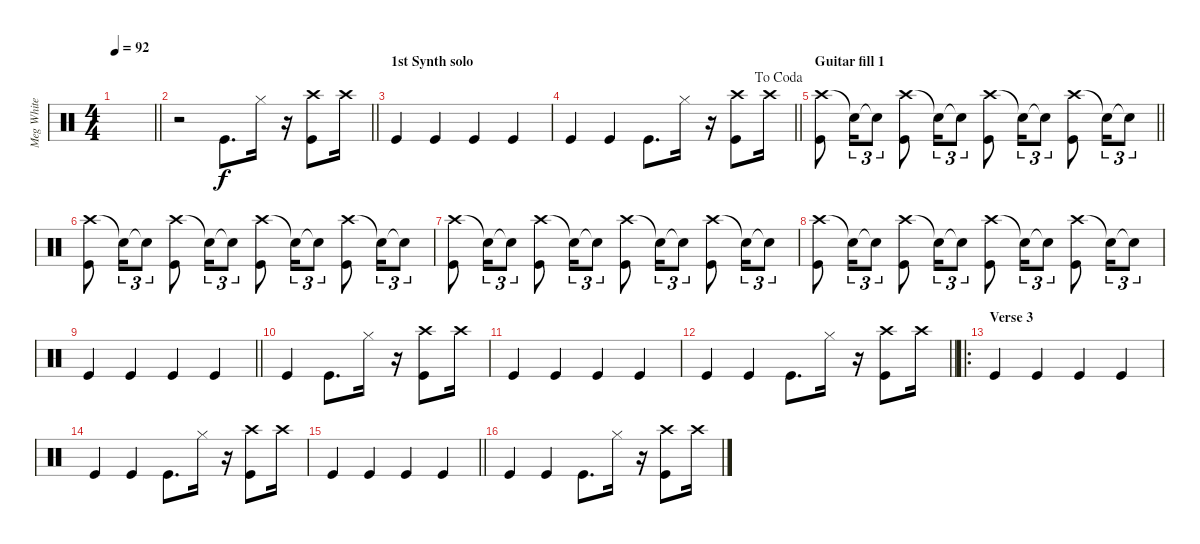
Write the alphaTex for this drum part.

\track ("Meg White" "Meg White") {instrument percussion}
\staff {score}
\articulation defaults
\ts (4 4)
\tempo 92
\clef neutral
\barLineRight lightlight
\ks c
|
\barLineRight lightlight
r.2 "Kick (hit)".8{d} "Hi-Hat (closed)".16 r.16 ("Kick (hit)" "Crash high (hit)").8 "Crash high (hit)".16 |
\section ("" "1st Synth solo")
"Kick (hit)".4 "Kick (hit)".4 "Kick (hit)".4 "Kick (hit)".4 |
\jump dacoda
\barLineRight lightlight "Kick (hit)".4 "Kick (hit)".4 "Kick (hit)".8{d} "Hi-Hat (closed)".16
r.16 ("Kick (hit)" "Crash high (hit)").8 "Crash high (hit)".16 |
\section ("" "Guitar fill 1")
\barLineRight lightlight
("Crash high (hit)" "Kick (hit)").8 "Snare (hit)"{t}.16{tu (3 2)} "Snare (hit)"{t}.8{tu (3 2)} ("Crash high (hit)" "Kick (hit)").8 "Snare (hit)"{t}.16{tu (3 2)} "Snare (hit)"{t}.8{tu (3 2)} ("Crash high (hit)" "Kick (hit)").8 "Snare (hit)"{t}.16{tu (3 2)} "Snare (hit)"{t}.8{tu (3 2)} ("Crash high (hit)" "Kick (hit)").8 "Snare (hit)"{t}.16{tu (3 2)} "Snare (hit)"{t}.8{tu (3 2)} |
("Crash high (hit)" "Kick (hit)").8 "Snare (hit)"{t}.16{tu (3 2)} "Snare (hit)"{t}.8{tu (3 2)} ("Crash high (hit)" "Kick (hit)").8 "Snare (hit)"{t}.16{tu (3 2)} "Snare (hit)"{t}.8{tu (3 2)} ("Crash high (hit)" "Kick (hit)").8 "Snare (hit)"{t}.16{tu (3 2)} "Snare (hit)"{t}.8{tu (3 2)} ("Crash high (hit)" "Kick (hit)").8 "Snare (hit)"{t}.16{tu (3 2)} "Snare (hit)"{t}.8{tu (3 2)} |
("Crash high (hit)" "Kick (hit)").8 "Snare (hit)"{t}.16{tu (3 2)} "Snare (hit)"{t}.8{tu (3 2)} ("Crash high (hit)" "Kick (hit)").8 "Snare (hit)"{t}.16{tu (3 2)} "Snare (hit)"{t}.8{tu (3 2)} ("Crash high (hit)" "Kick (hit)").8 "Snare (hit)"{t}.16{tu (3 2)} "Snare (hit)"{t}.8{tu (3 2)} ("Crash high (hit)" "Kick (hit)").8 "Snare (hit)"{t}.16{tu (3 2)} "Snare (hit)"{t}.8{tu (3 2)} |
("Crash high (hit)" "Kick (hit)").8 "Snare (hit)"{t}.16{tu (3 2)} "Snare (hit)"{t}.8{tu (3 2)} ("Crash high (hit)" "Kick (hit)").8 "Snare (hit)"{t}.16{tu (3 2)} "Snare (hit)"{t}.8{tu (3 2)} ("Crash high (hit)" "Kick (hit)").8 "Snare (hit)"{t}.16{tu (3 2)} "Snare (hit)"{t}.8{tu (3 2)} ("Crash high (hit)" "Kick (hit)").8 "Snare (hit)"{t}.16{tu (3 2)} "Snare (hit)"{t}.8{tu (3 2)} |
\barLineRight lightlight "Kick (hit)".4 "Kick (hit)".4 "Kick (hit)".4 "Kick (hit)".4
|
"Kick (hit)".4 "Kick (hit)".8{d} "Hi-Hat (closed)".16 r.16 ("Kick (hit)" "Crash high (hit)").8 "Crash high (hit)".16 |
"Kick (hit)".4 "Kick (hit)".4 "Kick (hit)".4 "Kick (hit)".4 |
\barLineRight lightlight "Kick (hit)".4 "Kick (hit)".4 "Kick (hit)".8{d} "Hi-Hat (closed)".16
r.16 ("Kick (hit)" "Crash high (hit)").8 "Crash high (hit)".16 |
\ro
\section ("" "Verse 3")
"Kick (hit)".4 "Kick (hit)".4 "Kick (hit)".4 "Kick (hit)".4 |
"Kick (hit)".4 "Kick (hit)".4 "Kick (hit)".8{d} "Hi-Hat (closed)".16 r.16 ("Kick (hit)" "Crash high (hit)").8 "Crash high (hit)".16 |
\barLineRight lightlight "Kick (hit)".4 "Kick (hit)".4 "Kick (hit)".4 "Kick (hit)".4
|
"Kick (hit)".4 "Kick (hit)".4 "Kick (hit)".8{d} "Hi-Hat (closed)".16 r.16 ("Kick (hit)" "Crash high (hit)").8 "Crash high (hit)".16
